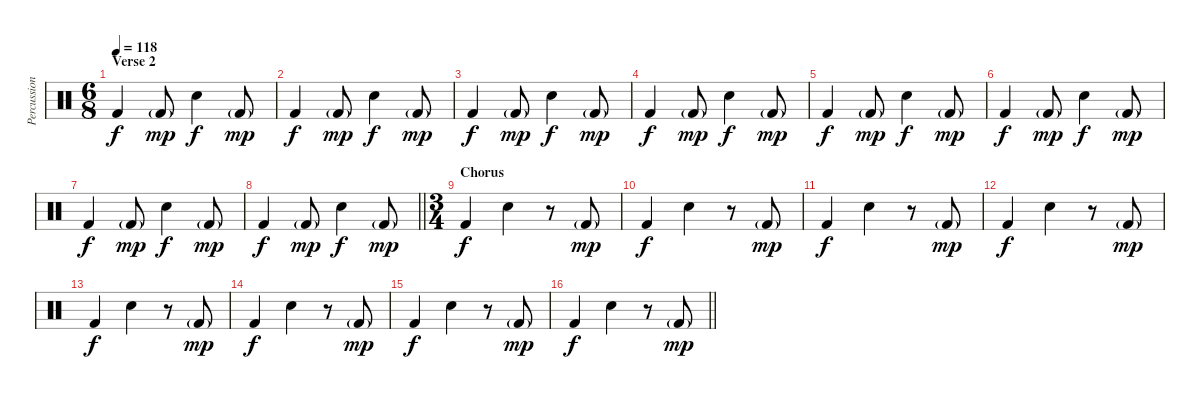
\track ("Percussion" "Percussion") {instrument percussion}
\staff {score}
\articulation defaults
\ts (6 8)
\section ("" "Verse 2")
\tempo 118
\clef neutral
\ks c "Kick (hit) 2".4{dy f} "Kick (hit) 2"{g}.8{dy mp} "Snare (hit) 2".4{dy f} "Kick (hit) 2"{g}.8{dy mp}
|
"Kick (hit) 2".4{dy f} "Kick (hit) 2"{g}.8{dy mp} "Snare (hit) 2".4{dy f} "Kick (hit) 2"{g}.8{dy mp} |
"Kick (hit) 2".4{dy f} "Kick (hit) 2"{g}.8{dy mp} "Snare (hit) 2".4{dy f} "Kick (hit) 2"{g}.8{dy mp} |
"Kick (hit) 2".4{dy f} "Kick (hit) 2"{g}.8{dy mp} "Snare (hit) 2".4{dy f} "Kick (hit) 2"{g}.8{dy mp} |
"Kick (hit) 2".4{dy f} "Kick (hit) 2"{g}.8{dy mp} "Snare (hit) 2".4{dy f} "Kick (hit) 2"{g}.8{dy mp} |
"Kick (hit) 2".4{dy f} "Kick (hit) 2"{g}.8{dy mp} "Snare (hit) 2".4{dy f} "Kick (hit) 2"{g}.8{dy mp} |
"Kick (hit) 2".4{dy f} "Kick (hit) 2"{g}.8{dy mp} "Snare (hit) 2".4{dy f} "Kick (hit) 2"{g}.8{dy mp} |
\barLineRight lightlight "Kick (hit) 2".4{dy f} "Kick (hit) 2"{g}.8{dy mp} "Snare (hit) 2".4{dy f} "Kick (hit) 2"{g}.8{dy mp}
|
\ts (3 4)
\section ("" "Chorus")
"Kick (hit) 2".4{dy f} "Snare (hit) 2".4 r.8 "Kick (hit) 2"{g}.8{dy mp} |
"Kick (hit) 2".4{dy f} "Snare (hit) 2".4 r.8 "Kick (hit) 2"{g}.8{dy mp} |
"Kick (hit) 2".4{dy f} "Snare (hit) 2".4 r.8 "Kick (hit) 2"{g}.8{dy mp} |
"Kick (hit) 2".4{dy f} "Snare (hit) 2".4 r.8 "Kick (hit) 2"{g}.8{dy mp} |
"Kick (hit) 2".4{dy f} "Snare (hit) 2".4 r.8 "Kick (hit) 2"{g}.8{dy mp} |
"Kick (hit) 2".4{dy f} "Snare (hit) 2".4 r.8 "Kick (hit) 2"{g}.8{dy mp} |
"Kick (hit) 2".4{dy f} "Snare (hit) 2".4 r.8 "Kick (hit) 2"{g}.8{dy mp} |
\barLineRight lightlight "Kick (hit) 2".4{dy f} "Snare (hit) 2".4
r.8 "Kick (hit) 2"{g}.8{dy mp}
